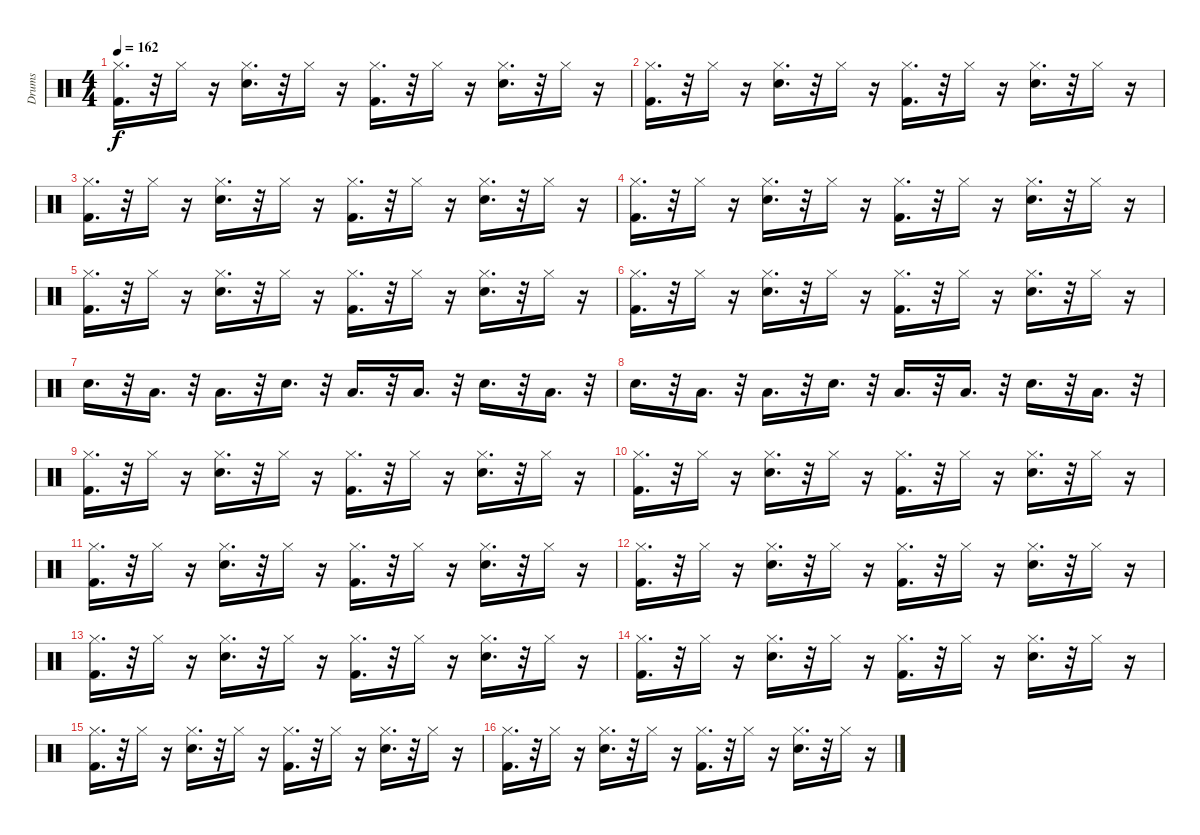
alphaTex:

\track ("Drums" "Drums") {instrument percussion}
\staff {score}
\articulation defaults
\ts (4 4)
\tempo 162
\clef neutral
\ks c
("Hi-Hat (closed)" "Kick (hit) 2").16{d dy f} r.32 "Hi-Hat (closed)".16 r.16 ("Hi-Hat (closed)" "Snare (hit) 2").16{d} r.32 "Hi-Hat (closed)".16 r.16 ("Hi-Hat (closed)" "Kick (hit) 2").16{d} r.32 "Hi-Hat (closed)".16 r.16 ("Hi-Hat (closed)" "Snare (hit) 2").16{d} r.32 "Hi-Hat (closed)".16 r.16 |
("Hi-Hat (closed)" "Kick (hit) 2").16{d} r.32 "Hi-Hat (closed)".16 r.16 ("Hi-Hat (closed)" "Snare (hit) 2").16{d} r.32 "Hi-Hat (closed)".16 r.16 ("Hi-Hat (closed)" "Kick (hit) 2").16{d} r.32 "Hi-Hat (closed)".16 r.16 ("Hi-Hat (closed)" "Snare (hit) 2").16{d} r.32 "Hi-Hat (closed)".16 r.16 |
("Hi-Hat (closed)" "Kick (hit) 2").16{d} r.32 "Hi-Hat (closed)".16 r.16 ("Hi-Hat (closed)" "Snare (hit) 2").16{d} r.32 "Hi-Hat (closed)".16 r.16 ("Hi-Hat (closed)" "Kick (hit) 2").16{d} r.32 "Hi-Hat (closed)".16 r.16 ("Hi-Hat (closed)" "Snare (hit) 2").16{d} r.32 "Hi-Hat (closed)".16 r.16 |
("Hi-Hat (closed)" "Kick (hit) 2").16{d} r.32 "Hi-Hat (closed)".16 r.16 ("Hi-Hat (closed)" "Snare (hit) 2").16{d} r.32 "Hi-Hat (closed)".16 r.16 ("Hi-Hat (closed)" "Kick (hit) 2").16{d} r.32 "Hi-Hat (closed)".16 r.16 ("Hi-Hat (closed)" "Snare (hit) 2").16{d} r.32 "Hi-Hat (closed)".16 r.16 |
("Hi-Hat (closed)" "Kick (hit) 2").16{d} r.32 "Hi-Hat (closed)".16 r.16 ("Hi-Hat (closed)" "Snare (hit) 2").16{d} r.32 "Hi-Hat (closed)".16 r.16 ("Hi-Hat (closed)" "Kick (hit) 2").16{d} r.32 "Hi-Hat (closed)".16 r.16 ("Hi-Hat (closed)" "Snare (hit) 2").16{d} r.32 "Hi-Hat (closed)".16 r.16 |
("Hi-Hat (closed)" "Kick (hit) 2").16{d} r.32 "Hi-Hat (closed)".16 r.16 ("Hi-Hat (closed)" "Snare (hit) 2").16{d} r.32 "Hi-Hat (closed)".16 r.16 ("Hi-Hat (closed)" "Kick (hit) 2").16{d} r.32 "Hi-Hat (closed)".16 r.16 ("Hi-Hat (closed)" "Snare (hit) 2").16{d} r.32 "Hi-Hat (closed)".16 r.16 |
"Snare (hit) 2".16{d} r.32 "Low Floor Tom (hit)".16{d} r.32 "Low Floor Tom (hit)".16{d} r.32 "Snare (hit) 2".16{d} r.32 "Low Floor Tom (hit)".16{d} r.32 "Low Floor Tom (hit)".16{d} r.32 "Snare (hit) 2".16{d} r.32 "Low Floor Tom (hit)".16{d} r.32 |
"Snare (hit) 2".16{d} r.32 "Low Floor Tom (hit)".16{d} r.32 "Low Floor Tom (hit)".16{d} r.32 "Snare (hit) 2".16{d} r.32 "Low Floor Tom (hit)".16{d} r.32 "Low Floor Tom (hit)".16{d} r.32 "Snare (hit) 2".16{d} r.32 "Low Floor Tom (hit)".16{d} r.32 |
("Hi-Hat (closed)" "Kick (hit) 2").16{d} r.32 "Hi-Hat (closed)".16 r.16 ("Hi-Hat (closed)" "Snare (hit) 2").16{d} r.32 "Hi-Hat (closed)".16 r.16 ("Hi-Hat (closed)" "Kick (hit) 2").16{d} r.32 "Hi-Hat (closed)".16 r.16 ("Hi-Hat (closed)" "Snare (hit) 2").16{d} r.32 "Hi-Hat (closed)".16 r.16 |
("Hi-Hat (closed)" "Kick (hit) 2").16{d} r.32 "Hi-Hat (closed)".16 r.16 ("Hi-Hat (closed)" "Snare (hit) 2").16{d} r.32 "Hi-Hat (closed)".16 r.16 ("Hi-Hat (closed)" "Kick (hit) 2").16{d} r.32 "Hi-Hat (closed)".16 r.16 ("Hi-Hat (closed)" "Snare (hit) 2").16{d} r.32 "Hi-Hat (closed)".16 r.16 |
("Hi-Hat (closed)" "Kick (hit) 2").16{d} r.32 "Hi-Hat (closed)".16 r.16 ("Hi-Hat (closed)" "Snare (hit) 2").16{d} r.32 "Hi-Hat (closed)".16 r.16 ("Hi-Hat (closed)" "Kick (hit) 2").16{d} r.32 "Hi-Hat (closed)".16 r.16 ("Hi-Hat (closed)" "Snare (hit) 2").16{d} r.32 "Hi-Hat (closed)".16 r.16 |
("Hi-Hat (closed)" "Kick (hit) 2").16{d} r.32 "Hi-Hat (closed)".16 r.16 ("Hi-Hat (closed)" "Snare (hit) 2").16{d} r.32 "Hi-Hat (closed)".16 r.16 ("Hi-Hat (closed)" "Kick (hit) 2").16{d} r.32 "Hi-Hat (closed)".16 r.16 ("Hi-Hat (closed)" "Snare (hit) 2").16{d} r.32 "Hi-Hat (closed)".16 r.16 |
("Hi-Hat (closed)" "Kick (hit) 2").16{d} r.32 "Hi-Hat (closed)".16 r.16 ("Hi-Hat (closed)" "Snare (hit) 2").16{d} r.32 "Hi-Hat (closed)".16 r.16 ("Hi-Hat (closed)" "Kick (hit) 2").16{d} r.32 "Hi-Hat (closed)".16 r.16 ("Hi-Hat (closed)" "Snare (hit) 2").16{d} r.32 "Hi-Hat (closed)".16 r.16 |
("Hi-Hat (closed)" "Kick (hit) 2").16{d} r.32 "Hi-Hat (closed)".16 r.16 ("Hi-Hat (closed)" "Snare (hit) 2").16{d} r.32 "Hi-Hat (closed)".16 r.16 ("Hi-Hat (closed)" "Kick (hit) 2").16{d} r.32 "Hi-Hat (closed)".16 r.16 ("Hi-Hat (closed)" "Snare (hit) 2").16{d} r.32 "Hi-Hat (closed)".16 r.16 |
("Hi-Hat (closed)" "Kick (hit) 2").16{d} r.32 "Hi-Hat (closed)".16 r.16 ("Hi-Hat (closed)" "Snare (hit) 2").16{d} r.32 "Hi-Hat (closed)".16 r.16 ("Hi-Hat (closed)" "Kick (hit) 2").16{d} r.32 "Hi-Hat (closed)".16 r.16 ("Hi-Hat (closed)" "Snare (hit) 2").16{d} r.32 "Hi-Hat (closed)".16 r.16 |
("Hi-Hat (closed)" "Kick (hit) 2").16{d} r.32 "Hi-Hat (closed)".16 r.16 ("Hi-Hat (closed)" "Snare (hit) 2").16{d} r.32 "Hi-Hat (closed)".16 r.16 ("Hi-Hat (closed)" "Kick (hit) 2").16{d} r.32 "Hi-Hat (closed)".16 r.16 ("Hi-Hat (closed)" "Snare (hit) 2").16{d} r.32 "Hi-Hat (closed)".16 r.16
